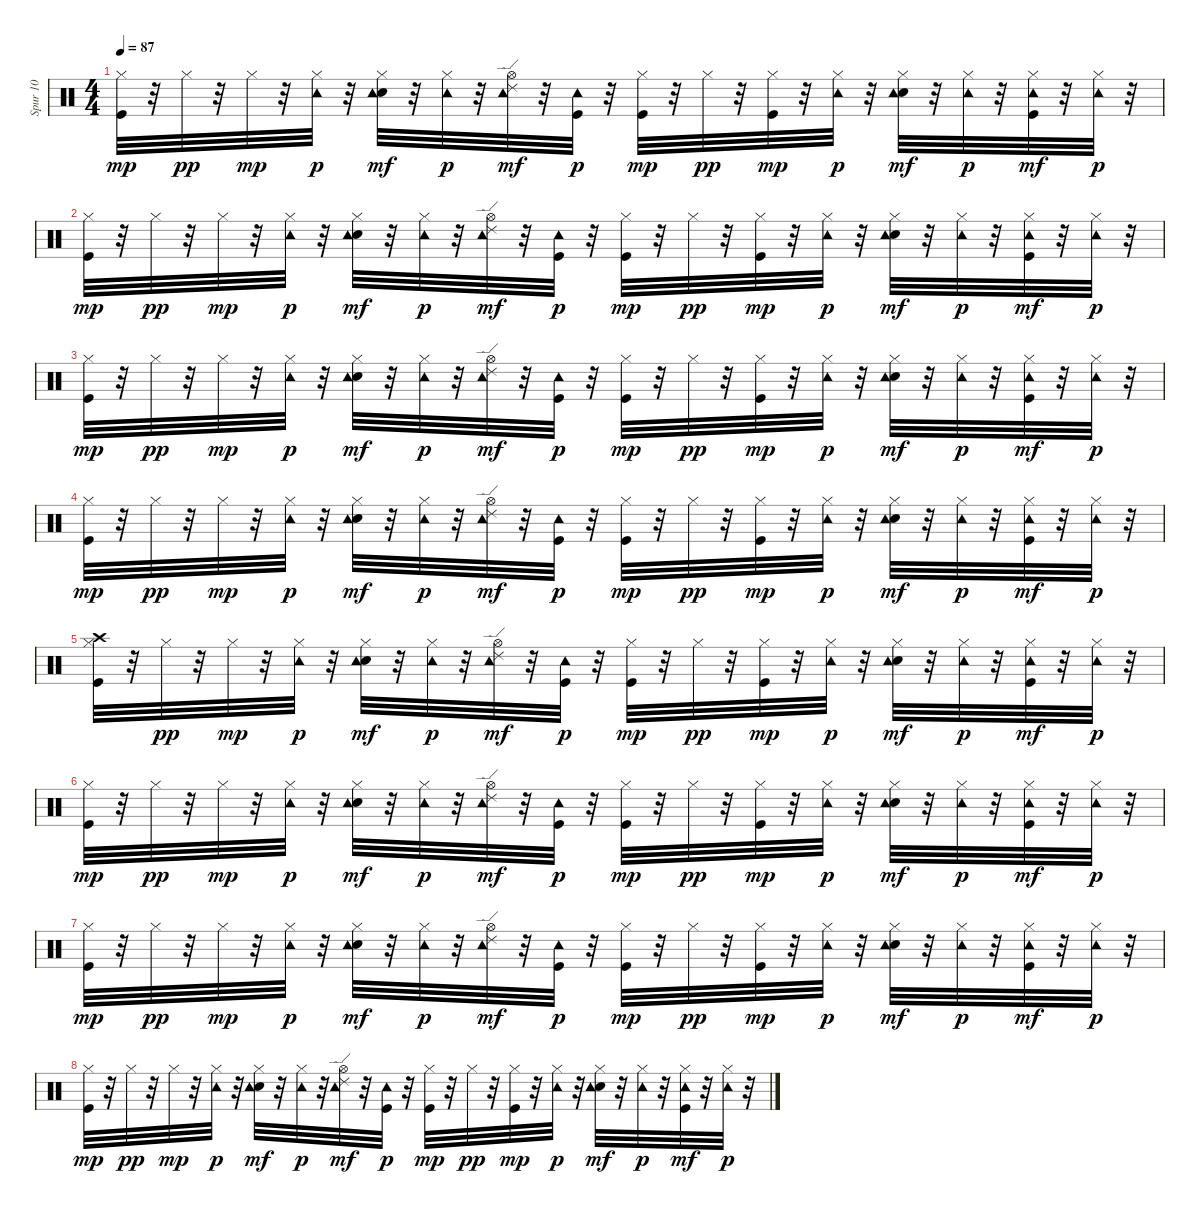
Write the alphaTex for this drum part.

\track ("Spur 10" "Spur 10") {instrument percussion}
\staff {score}
\articulation defaults
\ts (4 4)
\tempo 87
\clef neutral
\ks c
("Kick (hit)" "Hi-Hat (closed)").32{dy mp} r.32 "Hi-Hat (closed)".32{dy pp} r.32 "Hi-Hat (closed)".32{dy mp} r.32 ("Hi-Hat (closed)" "Tambourine (hit)").32{dy p} r.32 ("Electric Snare (hit)" "Hi-Hat (closed)" "Tambourine (hit)").32{dy mf} r.32 ("Hi-Hat (closed)" "Tambourine (hit)").32{dy p} r.32 ("Hi-Hat (open)" "Tambourine (hit)" "Ride (edge) 2").32{dy mf} r.32 ("Kick (hit)" "Tambourine (hit)").32{dy p} r.32 ("Kick (hit)" "Hi-Hat (closed)").32{dy mp} r.32 "Hi-Hat (closed)".32{dy pp} r.32 ("Kick (hit)" "Hi-Hat (closed)").32{dy mp} r.32 ("Hi-Hat (closed)" "Tambourine (hit)").32{dy p} r.32 ("Electric Snare (hit)" "Hi-Hat (closed)" "Tambourine (hit)").32{dy mf} r.32 ("Hi-Hat (closed)" "Tambourine (hit)").32{dy p} r.32 ("Kick (hit)" "Hi-Hat (closed)" "Tambourine (hit)").32{dy mf} r.32 ("Hi-Hat (closed)" "Tambourine (hit)").32{dy p} r.32 |
("Kick (hit)" "Hi-Hat (closed)").32{dy mp} r.32 "Hi-Hat (closed)".32{dy pp} r.32 "Hi-Hat (closed)".32{dy mp} r.32 ("Hi-Hat (closed)" "Tambourine (hit)").32{dy p} r.32 ("Electric Snare (hit)" "Hi-Hat (closed)" "Tambourine (hit)").32{dy mf} r.32 ("Hi-Hat (closed)" "Tambourine (hit)").32{dy p} r.32 ("Hi-Hat (open)" "Tambourine (hit)" "Ride (edge) 2").32{dy mf} r.32 ("Kick (hit)" "Tambourine (hit)").32{dy p} r.32 ("Kick (hit)" "Hi-Hat (closed)").32{dy mp} r.32 "Hi-Hat (closed)".32{dy pp} r.32 ("Kick (hit)" "Hi-Hat (closed)").32{dy mp} r.32 ("Hi-Hat (closed)" "Tambourine (hit)").32{dy p} r.32 ("Electric Snare (hit)" "Hi-Hat (closed)" "Tambourine (hit)").32{dy mf} r.32 ("Hi-Hat (closed)" "Tambourine (hit)").32{dy p} r.32 ("Kick (hit)" "Hi-Hat (closed)" "Tambourine (hit)").32{dy mf} r.32 ("Hi-Hat (closed)" "Tambourine (hit)").32{dy p} r.32 |
("Kick (hit)" "Hi-Hat (closed)").32{dy mp} r.32 "Hi-Hat (closed)".32{dy pp} r.32 "Hi-Hat (closed)".32{dy mp} r.32 ("Hi-Hat (closed)" "Tambourine (hit)").32{dy p} r.32 ("Electric Snare (hit)" "Hi-Hat (closed)" "Tambourine (hit)").32{dy mf} r.32 ("Hi-Hat (closed)" "Tambourine (hit)").32{dy p} r.32 ("Hi-Hat (open)" "Tambourine (hit)" "Ride (edge) 2").32{dy mf} r.32 ("Kick (hit)" "Tambourine (hit)").32{dy p} r.32 ("Kick (hit)" "Hi-Hat (closed)").32{dy mp} r.32 "Hi-Hat (closed)".32{dy pp} r.32 ("Kick (hit)" "Hi-Hat (closed)").32{dy mp} r.32 ("Hi-Hat (closed)" "Tambourine (hit)").32{dy p} r.32 ("Electric Snare (hit)" "Hi-Hat (closed)" "Tambourine (hit)").32{dy mf} r.32 ("Hi-Hat (closed)" "Tambourine (hit)").32{dy p} r.32 ("Kick (hit)" "Hi-Hat (closed)" "Tambourine (hit)").32{dy mf} r.32 ("Hi-Hat (closed)" "Tambourine (hit)").32{dy p} r.32 |
("Kick (hit)" "Hi-Hat (closed)").32{dy mp} r.32 "Hi-Hat (closed)".32{dy pp} r.32 "Hi-Hat (closed)".32{dy mp} r.32 ("Hi-Hat (closed)" "Tambourine (hit)").32{dy p} r.32 ("Electric Snare (hit)" "Hi-Hat (closed)" "Tambourine (hit)").32{dy mf} r.32 ("Hi-Hat (closed)" "Tambourine (hit)").32{dy p} r.32 ("Hi-Hat (open)" "Tambourine (hit)" "Ride (edge) 2").32{dy mf} r.32 ("Kick (hit)" "Tambourine (hit)").32{dy p} r.32 ("Kick (hit)" "Hi-Hat (closed)").32{dy mp} r.32 "Hi-Hat (closed)".32{dy pp} r.32 ("Kick (hit)" "Hi-Hat (closed)").32{dy mp} r.32 ("Hi-Hat (closed)" "Tambourine (hit)").32{dy p} r.32 ("Electric Snare (hit)" "Hi-Hat (closed)" "Tambourine (hit)").32{dy mf} r.32 ("Hi-Hat (closed)" "Tambourine (hit)").32{dy p} r.32 ("Kick (hit)" "Hi-Hat (closed)" "Tambourine (hit)").32{dy mf} r.32 ("Hi-Hat (closed)" "Tambourine (hit)").32{dy p} r.32 |
("Kick (hit)" "Hi-Hat (closed)" "Crash high (hit)").32 r.32 "Hi-Hat (closed)".32{dy pp} r.32 "Hi-Hat (closed)".32{dy mp} r.32 ("Hi-Hat (closed)" "Tambourine (hit)").32{dy p} r.32 ("Electric Snare (hit)" "Hi-Hat (closed)" "Tambourine (hit)").32{dy mf} r.32 ("Hi-Hat (closed)" "Tambourine (hit)").32{dy p} r.32 ("Hi-Hat (open)" "Tambourine (hit)" "Ride (edge) 2").32{dy mf} r.32 ("Kick (hit)" "Tambourine (hit)").32{dy p} r.32 ("Kick (hit)" "Hi-Hat (closed)").32{dy mp} r.32 "Hi-Hat (closed)".32{dy pp} r.32 ("Kick (hit)" "Hi-Hat (closed)").32{dy mp} r.32 ("Hi-Hat (closed)" "Tambourine (hit)").32{dy p} r.32 ("Electric Snare (hit)" "Hi-Hat (closed)" "Tambourine (hit)").32{dy mf} r.32 ("Hi-Hat (closed)" "Tambourine (hit)").32{dy p} r.32 ("Kick (hit)" "Hi-Hat (closed)" "Tambourine (hit)").32{dy mf} r.32 ("Hi-Hat (closed)" "Tambourine (hit)").32{dy p} r.32 |
("Kick (hit)" "Hi-Hat (closed)").32{dy mp} r.32 "Hi-Hat (closed)".32{dy pp} r.32 "Hi-Hat (closed)".32{dy mp} r.32 ("Hi-Hat (closed)" "Tambourine (hit)").32{dy p} r.32 ("Electric Snare (hit)" "Hi-Hat (closed)" "Tambourine (hit)").32{dy mf} r.32 ("Hi-Hat (closed)" "Tambourine (hit)").32{dy p} r.32 ("Hi-Hat (open)" "Tambourine (hit)" "Ride (edge) 2").32{dy mf} r.32 ("Kick (hit)" "Tambourine (hit)").32{dy p} r.32 ("Kick (hit)" "Hi-Hat (closed)").32{dy mp} r.32 "Hi-Hat (closed)".32{dy pp} r.32 ("Kick (hit)" "Hi-Hat (closed)").32{dy mp} r.32 ("Hi-Hat (closed)" "Tambourine (hit)").32{dy p} r.32 ("Electric Snare (hit)" "Hi-Hat (closed)" "Tambourine (hit)").32{dy mf} r.32 ("Hi-Hat (closed)" "Tambourine (hit)").32{dy p} r.32 ("Kick (hit)" "Hi-Hat (closed)" "Tambourine (hit)").32{dy mf} r.32 ("Hi-Hat (closed)" "Tambourine (hit)").32{dy p} r.32 |
("Kick (hit)" "Hi-Hat (closed)").32{dy mp} r.32 "Hi-Hat (closed)".32{dy pp} r.32 "Hi-Hat (closed)".32{dy mp} r.32 ("Hi-Hat (closed)" "Tambourine (hit)").32{dy p} r.32 ("Electric Snare (hit)" "Hi-Hat (closed)" "Tambourine (hit)").32{dy mf} r.32 ("Hi-Hat (closed)" "Tambourine (hit)").32{dy p} r.32 ("Hi-Hat (open)" "Tambourine (hit)" "Ride (edge) 2").32{dy mf} r.32 ("Kick (hit)" "Tambourine (hit)").32{dy p} r.32 ("Kick (hit)" "Hi-Hat (closed)").32{dy mp} r.32 "Hi-Hat (closed)".32{dy pp} r.32 ("Kick (hit)" "Hi-Hat (closed)").32{dy mp} r.32 ("Hi-Hat (closed)" "Tambourine (hit)").32{dy p} r.32 ("Electric Snare (hit)" "Hi-Hat (closed)" "Tambourine (hit)").32{dy mf} r.32 ("Hi-Hat (closed)" "Tambourine (hit)").32{dy p} r.32 ("Kick (hit)" "Hi-Hat (closed)" "Tambourine (hit)").32{dy mf} r.32 ("Hi-Hat (closed)" "Tambourine (hit)").32{dy p} r.32 |
("Kick (hit)" "Hi-Hat (closed)").32{dy mp} r.32 "Hi-Hat (closed)".32{dy pp} r.32 "Hi-Hat (closed)".32{dy mp} r.32 ("Hi-Hat (closed)" "Tambourine (hit)").32{dy p} r.32 ("Electric Snare (hit)" "Hi-Hat (closed)" "Tambourine (hit)").32{dy mf} r.32 ("Hi-Hat (closed)" "Tambourine (hit)").32{dy p} r.32 ("Hi-Hat (open)" "Tambourine (hit)" "Ride (edge) 2").32{dy mf} r.32 ("Kick (hit)" "Tambourine (hit)").32{dy p} r.32 ("Kick (hit)" "Hi-Hat (closed)").32{dy mp} r.32 "Hi-Hat (closed)".32{dy pp} r.32 ("Kick (hit)" "Hi-Hat (closed)").32{dy mp} r.32 ("Hi-Hat (closed)" "Tambourine (hit)").32{dy p} r.32 ("Electric Snare (hit)" "Hi-Hat (closed)" "Tambourine (hit)").32{dy mf} r.32 ("Hi-Hat (closed)" "Tambourine (hit)").32{dy p} r.32 ("Kick (hit)" "Hi-Hat (closed)" "Tambourine (hit)").32{dy mf} r.32 ("Hi-Hat (closed)" "Tambourine (hit)").32{dy p} r.32
